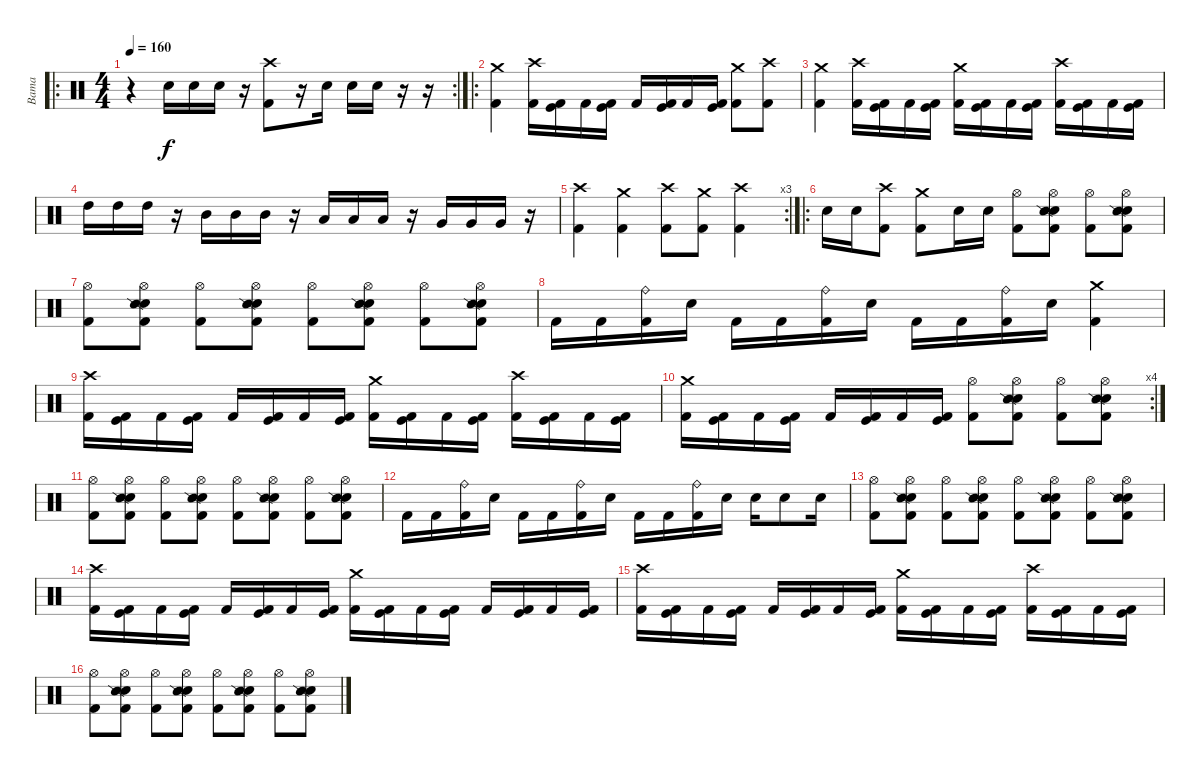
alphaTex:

\track ("Bama" "Bama") {instrument percussion}
\staff {score}
\articulation defaults
\ro
\rc 2
\ts (4 4)
\tempo 160
\clef neutral
\ks c
r.4{dy f} "Electric Snare (hit)".16 "Electric Snare (hit)".16 "Electric Snare (hit)".16 r.16 ("Crash high (hit)" "Kick (hit) 2").8 r.16 "Electric Snare (hit)".16 "Electric Snare (hit)".16 "Electric Snare (hit)".16 r.16 r.16 |
\ro
("Crash medium (hit)" "Kick (hit) 2").4 ("Crash high (hit)" "Kick (hit) 2").16 ("Kick (hit)" "Kick (hit) 2").16 "Kick (hit) 2".16 ("Kick (hit)" "Kick (hit) 2").16 "Kick (hit) 2".16 ("Kick (hit)" "Kick (hit) 2").16 "Kick (hit) 2".16 ("Kick (hit)" "Kick (hit) 2").16 ("Crash medium (hit)" "Kick (hit) 2").8 ("Crash high (hit)" "Kick (hit) 2").8 |
("Crash medium (hit)" "Kick (hit) 2").4 ("Crash high (hit)" "Kick (hit) 2").16 ("Kick (hit)" "Kick (hit) 2").16 "Kick (hit) 2".16 ("Kick (hit)" "Kick (hit) 2").16 ("Crash medium (hit)" "Kick (hit) 2").16 ("Kick (hit)" "Kick (hit) 2").16 "Kick (hit) 2".16 ("Kick (hit)" "Kick (hit) 2").16 ("Crash high (hit)" "Kick (hit) 2").16 ("Kick (hit)" "Kick (hit) 2").16 "Kick (hit) 2".16 ("Kick (hit)" "Kick (hit) 2").16 |
"High Tom (hit)".16 "High Tom (hit)".16 "High Tom (hit)".16 r.16 "Mid Tom (hit)".16 "Mid Tom (hit)".16 "Mid Tom (hit)".16 r.16 "Low Tom (hit)".16 "Low Tom (hit)".16 "Low Tom (hit)".16 r.16 "Very Low Tom (hit)".16 "Very Low Tom (hit)".16 "Very Low Tom (hit)".16 r.16 |
\rc 3
("Crash high (hit)" "Kick (hit) 2").4 ("Crash medium (hit)" "Kick (hit) 2").4 ("Crash high (hit)" "Kick (hit) 2").8 ("Crash medium (hit)" "Kick (hit) 2").8 ("Crash high (hit)" "Kick (hit) 2").4 |
\ro "Electric Snare (hit)".16 "Electric Snare (hit)".16
("Crash high (hit)" "Kick (hit) 2").8 ("Crash medium (hit)" "Kick (hit) 2").8 "Electric Snare (hit)".16 "Electric Snare (hit)".16 ("Hi-Hat (open)" "Kick (hit) 2").8 ("Hi-Hat (open)" "Electric Snare (hit)" "Snare (side stick) 2" "Kick (hit) 2").8 ("Hi-Hat (open)" "Kick (hit) 2").8 ("Hi-Hat (open)" "Electric Snare (hit)" "Snare (side stick) 2" "Kick (hit) 2").8 |
("Hi-Hat (open)" "Kick (hit) 2").8 ("Hi-Hat (open)" "Electric Snare (hit)" "Snare (side stick) 2" "Kick (hit) 2").8 ("Hi-Hat (open)" "Kick (hit) 2").8 ("Hi-Hat (open)" "Electric Snare (hit)" "Snare (side stick) 2" "Kick (hit) 2").8 ("Hi-Hat (open)" "Kick (hit) 2").8 ("Hi-Hat (open)" "Electric Snare (hit)" "Snare (side stick) 2" "Kick (hit) 2").8 ("Hi-Hat (open)" "Kick (hit) 2").8 ("Hi-Hat (open)" "Electric Snare (hit)" "Snare (side stick) 2" "Kick (hit) 2").8 |
"Kick (hit) 2".16 "Kick (hit) 2".16 ("Ride (bell)" "Kick (hit) 2").16 "Electric Snare (hit)".16 "Kick (hit) 2".16 "Kick (hit) 2".16 ("Ride (bell)" "Kick (hit) 2").16 "Electric Snare (hit)".16 "Kick (hit) 2".16 "Kick (hit) 2".16 ("Ride (bell)" "Kick (hit) 2").16 "Electric Snare (hit)".16 ("Crash medium (hit)" "Kick (hit) 2").4 |
("Crash high (hit)" "Kick (hit) 2").16 ("Kick (hit)" "Kick (hit) 2").16 "Kick (hit) 2".16 ("Kick (hit)" "Kick (hit) 2").16 "Kick (hit) 2".16 ("Kick (hit)" "Kick (hit) 2").16 "Kick (hit) 2".16 ("Kick (hit)" "Kick (hit) 2").16 ("Crash medium (hit)" "Kick (hit) 2").16 ("Kick (hit)" "Kick (hit) 2").16 "Kick (hit) 2".16 ("Kick (hit)" "Kick (hit) 2").16 ("Crash high (hit)" "Kick (hit) 2").16 ("Kick (hit)" "Kick (hit) 2").16 "Kick (hit) 2".16 ("Kick (hit)" "Kick (hit) 2").16 |
\rc 4
("Crash medium (hit)" "Kick (hit) 2").16 ("Kick (hit)" "Kick (hit) 2").16 "Kick (hit) 2".16 ("Kick (hit)" "Kick (hit) 2").16 "Kick (hit) 2".16 ("Kick (hit)" "Kick (hit) 2").16 "Kick (hit) 2".16 ("Kick (hit)" "Kick (hit) 2").16 ("Hi-Hat (open)" "Kick (hit) 2").8 ("Hi-Hat (open)" "Electric Snare (hit)" "Snare (side stick) 2" "Kick (hit) 2").8 ("Hi-Hat (open)" "Kick (hit) 2").8 ("Hi-Hat (open)" "Electric Snare (hit)" "Snare (side stick) 2" "Kick (hit) 2").8 |
("Hi-Hat (open)" "Kick (hit) 2").8 ("Hi-Hat (open)" "Electric Snare (hit)" "Snare (side stick) 2" "Kick (hit) 2").8 ("Hi-Hat (open)" "Kick (hit) 2").8 ("Hi-Hat (open)" "Electric Snare (hit)" "Snare (side stick) 2" "Kick (hit) 2").8 ("Hi-Hat (open)" "Kick (hit) 2").8 ("Hi-Hat (open)" "Electric Snare (hit)" "Snare (side stick) 2" "Kick (hit) 2").8 ("Hi-Hat (open)" "Kick (hit) 2").8 ("Hi-Hat (open)" "Electric Snare (hit)" "Snare (side stick) 2" "Kick (hit) 2").8 |
"Kick (hit) 2".16 "Kick (hit) 2".16 ("Ride (bell)" "Kick (hit) 2").16 "Electric Snare (hit)".16 "Kick (hit) 2".16 "Kick (hit) 2".16 ("Ride (bell)" "Kick (hit) 2").16 "Electric Snare (hit)".16 "Kick (hit) 2".16 "Kick (hit) 2".16 ("Ride (bell)" "Kick (hit) 2").16 "Electric Snare (hit)".16 "Electric Snare (hit)".16 "Electric Snare (hit)".8 "Electric Snare (hit)".16 |
("Hi-Hat (open)" "Kick (hit) 2").8 ("Hi-Hat (open)" "Electric Snare (hit)" "Snare (side stick) 2" "Kick (hit) 2").8 ("Hi-Hat (open)" "Kick (hit) 2").8 ("Hi-Hat (open)" "Electric Snare (hit)" "Snare (side stick) 2" "Kick (hit) 2").8 ("Hi-Hat (open)" "Kick (hit) 2").8 ("Hi-Hat (open)" "Electric Snare (hit)" "Snare (side stick) 2" "Kick (hit) 2").8 ("Hi-Hat (open)" "Kick (hit) 2").8 ("Hi-Hat (open)" "Electric Snare (hit)" "Snare (side stick) 2" "Kick (hit) 2").8 |
("Crash high (hit)" "Kick (hit) 2").16 ("Kick (hit)" "Kick (hit) 2").16 "Kick (hit) 2".16 ("Kick (hit)" "Kick (hit) 2").16 "Kick (hit) 2".16 ("Kick (hit)" "Kick (hit) 2").16 "Kick (hit) 2".16 ("Kick (hit)" "Kick (hit) 2").16 ("Crash medium (hit)" "Kick (hit) 2").16 ("Kick (hit)" "Kick (hit) 2").16 "Kick (hit) 2".16 ("Kick (hit)" "Kick (hit) 2").16 "Kick (hit) 2".16 ("Kick (hit)" "Kick (hit) 2").16 "Kick (hit) 2".16 ("Kick (hit)" "Kick (hit) 2").16 |
("Crash high (hit)" "Kick (hit) 2").16 ("Kick (hit)" "Kick (hit) 2").16 "Kick (hit) 2".16 ("Kick (hit)" "Kick (hit) 2").16 "Kick (hit) 2".16 ("Kick (hit)" "Kick (hit) 2").16 "Kick (hit) 2".16 ("Kick (hit)" "Kick (hit) 2").16 ("Crash medium (hit)" "Kick (hit) 2").16 ("Kick (hit)" "Kick (hit) 2").16 "Kick (hit) 2".16 ("Kick (hit)" "Kick (hit) 2").16 ("Crash high (hit)" "Kick (hit) 2").16 ("Kick (hit)" "Kick (hit) 2").16 "Kick (hit) 2".16 ("Kick (hit)" "Kick (hit) 2").16 |
("Hi-Hat (open)" "Kick (hit) 2").8 ("Hi-Hat (open)" "Electric Snare (hit)" "Snare (side stick) 2" "Kick (hit) 2").8 ("Hi-Hat (open)" "Kick (hit) 2").8 ("Hi-Hat (open)" "Electric Snare (hit)" "Snare (side stick) 2" "Kick (hit) 2").8 ("Hi-Hat (open)" "Kick (hit) 2").8 ("Hi-Hat (open)" "Electric Snare (hit)" "Snare (side stick) 2" "Kick (hit) 2").8 ("Hi-Hat (open)" "Kick (hit) 2").8 ("Hi-Hat (open)" "Electric Snare (hit)" "Snare (side stick) 2" "Kick (hit) 2").8
